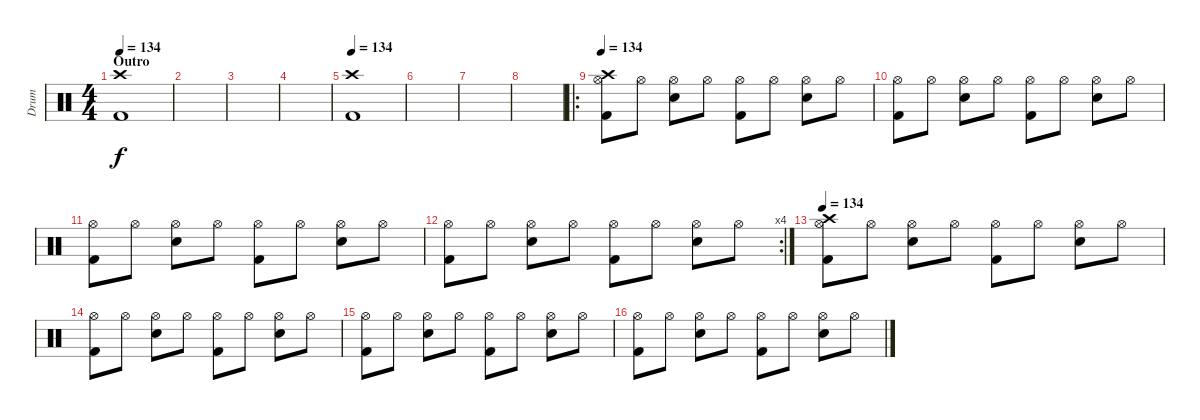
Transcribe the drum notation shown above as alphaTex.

\track ("Drum" "Drum") {instrument percussion}
\staff {score}
\articulation defaults
\ts (4 4)
\section ("" "Outro")
\tempo 134
\clef neutral
\ks c
("Crash high (hit)" "Kick (hit) 2").1{dy f} |
|
|
|
\tempo 134
("Crash high (hit)" "Kick (hit) 2").1 |
|
|
|
\ro
\tempo 134
("Hi-Hat (open)" "Crash high (hit)" "Kick (hit) 2").8 "Hi-Hat (open)".8 ("Hi-Hat (open)" "Snare (hit) 2").8 "Hi-Hat (open)".8 ("Hi-Hat (open)" "Kick (hit) 2").8 "Hi-Hat (open)".8 ("Hi-Hat (open)" "Snare (hit) 2").8 "Hi-Hat (open)".8 |
("Hi-Hat (open)" "Kick (hit) 2").8 "Hi-Hat (open)".8 ("Hi-Hat (open)" "Snare (hit) 2").8 "Hi-Hat (open)".8 ("Hi-Hat (open)" "Kick (hit) 2").8 "Hi-Hat (open)".8 ("Hi-Hat (open)" "Snare (hit) 2").8 "Hi-Hat (open)".8 |
("Hi-Hat (open)" "Kick (hit) 2").8 "Hi-Hat (open)".8 ("Hi-Hat (open)" "Snare (hit) 2").8 "Hi-Hat (open)".8 ("Hi-Hat (open)" "Kick (hit) 2").8 "Hi-Hat (open)".8 ("Hi-Hat (open)" "Snare (hit) 2").8 "Hi-Hat (open)".8 |
\rc 4
("Hi-Hat (open)" "Kick (hit) 2").8 "Hi-Hat (open)".8 ("Hi-Hat (open)" "Snare (hit) 2").8 "Hi-Hat (open)".8 ("Hi-Hat (open)" "Kick (hit) 2").8 "Hi-Hat (open)".8 ("Hi-Hat (open)" "Snare (hit) 2").8 "Hi-Hat (open)".8 |
\tempo 134
("Hi-Hat (open)" "Crash high (hit)" "Kick (hit) 2").8{volume 7} "Hi-Hat (open)".8 ("Hi-Hat (open)" "Snare (hit) 2").8 "Hi-Hat (open)".8 ("Hi-Hat (open)" "Kick (hit) 2").8 "Hi-Hat (open)".8 ("Hi-Hat (open)" "Snare (hit) 2").8 "Hi-Hat (open)".8 |
("Hi-Hat (open)" "Kick (hit) 2").8 "Hi-Hat (open)".8 ("Hi-Hat (open)" "Snare (hit) 2").8 "Hi-Hat (open)".8 ("Hi-Hat (open)" "Kick (hit) 2").8 "Hi-Hat (open)".8 ("Hi-Hat (open)" "Snare (hit) 2").8 "Hi-Hat (open)".8 |
("Hi-Hat (open)" "Kick (hit) 2").8 "Hi-Hat (open)".8 ("Hi-Hat (open)" "Snare (hit) 2").8 "Hi-Hat (open)".8 ("Hi-Hat (open)" "Kick (hit) 2").8 "Hi-Hat (open)".8 ("Hi-Hat (open)" "Snare (hit) 2").8 "Hi-Hat (open)".8 |
("Hi-Hat (open)" "Kick (hit) 2").8 "Hi-Hat (open)".8 ("Hi-Hat (open)" "Snare (hit) 2").8 "Hi-Hat (open)".8 ("Hi-Hat (open)" "Kick (hit) 2").8 "Hi-Hat (open)".8 ("Hi-Hat (open)" "Snare (hit) 2").8 "Hi-Hat (open)".8
